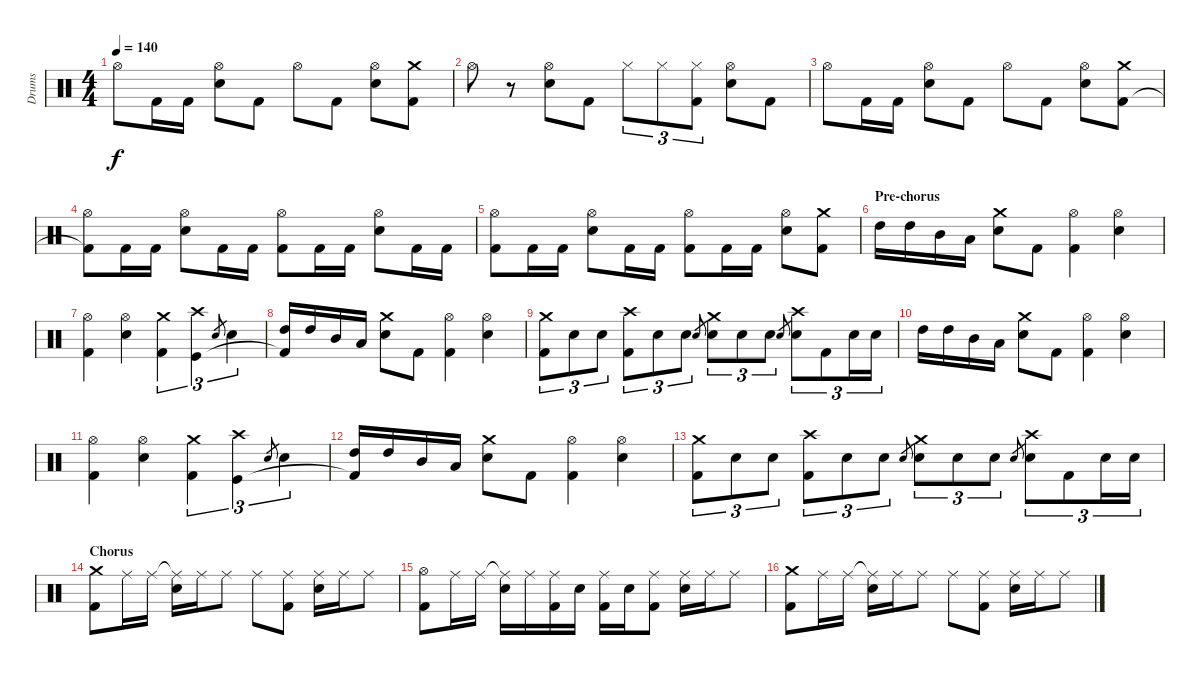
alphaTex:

\track ("Drums" "Drums") {instrument percussion}
\staff {score}
\articulation defaults
\ts (4 4)
\tempo 140
\clef neutral
\ks c "Hi-Hat (open)".8{dy f} "Kick (hit) 2".16 "Kick (hit) 2".16
("Hi-Hat (open)" "Snare (hit) 2").8 "Kick (hit) 2".8 "Hi-Hat (open)".8 "Kick (hit) 2".8 ("Hi-Hat (open)" "Snare (hit) 2").8 ("Crash medium (hit)" "Kick (hit) 2").8 |
"Hi-Hat (open)".8 r.8 ("Hi-Hat (open)" "Snare (hit) 2").8 "Kick (hit) 2".8 "Hi-Hat (closed)".8{tu (3 2)} "Hi-Hat (closed)".8{tu (3 2)} ("Hi-Hat (closed)" "Kick (hit) 2").8{tu (3 2)} ("Hi-Hat (open)" "Snare (hit) 2").8 "Kick (hit) 2".8 |
"Hi-Hat (open)".8 "Kick (hit) 2".16 "Kick (hit) 2".16 ("Hi-Hat (open)" "Snare (hit) 2").8 "Kick (hit) 2".8 "Hi-Hat (open)".8 "Kick (hit) 2".8 ("Hi-Hat (open)" "Snare (hit) 2").8 ("Crash medium (hit)" "Kick (hit) 2").8 |
("Hi-Hat (open)" "Kick (hit) 2"{t}).8 "Kick (hit) 2".16 "Kick (hit) 2".16 ("Hi-Hat (open)" "Snare (hit) 2").8 "Kick (hit) 2".16 "Kick (hit) 2".16 ("Hi-Hat (open)" "Kick (hit) 2").8 "Kick (hit) 2".16 "Kick (hit) 2".16 ("Hi-Hat (open)" "Snare (hit) 2").8 "Kick (hit) 2".16 "Kick (hit) 2".16 |
("Hi-Hat (open)" "Kick (hit) 2").8 "Kick (hit) 2".16 "Kick (hit) 2".16 ("Hi-Hat (open)" "Snare (hit) 2").8 "Kick (hit) 2".16 "Kick (hit) 2".16 ("Hi-Hat (open)" "Kick (hit) 2").8 "Kick (hit) 2".16 "Kick (hit) 2".16 ("Hi-Hat (open)" "Snare (hit) 2").8 ("Crash medium (hit)" "Kick (hit) 2").8 |
\section ("" "Pre-chorus")
"High Tom (hit)".16 "High Tom (hit)".16 "Mid Tom (hit)".16 "Low Tom (hit)".16 ("Crash medium (hit)" "Snare (hit) 2").8 "Kick (hit) 2".8 ("Hi-Hat (open)" "Kick (hit) 2").4 ("Hi-Hat (open)" "Snare (hit) 2").4 |
("Hi-Hat (open)" "Kick (hit) 2").4 ("Hi-Hat (open)" "Snare (hit) 2").4 ("Crash medium (hit)" "Kick (hit) 2").4{tu (3 2)} ("Crash high (hit)" "Kick (hit)").4{tu (3 2)} "Snare (hit) 2".8{gr} "Snare (hit) 2".4{tu (3 2)} |
("High Tom (hit)" "Kick (hit) 2"{t}).16 "High Tom (hit)".16 "Mid Tom (hit)".16 "Low Tom (hit)".16 ("Crash medium (hit)" "Snare (hit) 2").8 "Kick (hit) 2".8 ("Hi-Hat (open)" "Kick (hit) 2").4 ("Hi-Hat (open)" "Snare (hit) 2").4 |
("Crash medium (hit)" "Kick (hit) 2").8{tu (3 2)} "Snare (hit) 2".8{tu (3 2)} "Snare (hit) 2".8{tu (3 2)} ("Crash high (hit)" "Kick (hit) 2").8{tu (3 2)} "Snare (hit) 2".8{tu (3 2)} "Snare (hit) 2".8{tu (3 2)} "Snare (hit) 2".8{gr} ("Crash medium (hit)" "Snare (hit) 2").8{tu (3 2)} "Snare (hit) 2".8{tu (3 2)} "Snare (hit) 2".8{tu (3 2)} "Snare (hit) 2".8{gr} ("Crash high (hit)" "Snare (hit) 2").8{tu (3 2)} "Kick (hit) 2".8{tu (3 2)} "Snare (hit) 2".16{tu (3 2)} "Snare (hit) 2".16{tu (3 2)} |
"High Tom (hit)".16 "High Tom (hit)".16 "Mid Tom (hit)".16 "Low Tom (hit)".16 ("Crash medium (hit)" "Snare (hit) 2").8 "Kick (hit) 2".8 ("Hi-Hat (open)" "Kick (hit) 2").4 ("Hi-Hat (open)" "Snare (hit) 2").4 |
("Hi-Hat (open)" "Kick (hit) 2").4 ("Hi-Hat (open)" "Snare (hit) 2").4 ("Crash medium (hit)" "Kick (hit) 2").4{tu (3 2)} ("Crash high (hit)" "Kick (hit)").4{tu (3 2)} "Snare (hit) 2".8{gr} "Snare (hit) 2".4{tu (3 2)} |
("High Tom (hit)" "Kick (hit) 2"{t}).16 "High Tom (hit)".16 "Mid Tom (hit)".16 "Low Tom (hit)".16 ("Crash medium (hit)" "Snare (hit) 2").8 "Kick (hit) 2".8 ("Hi-Hat (open)" "Kick (hit) 2").4 ("Hi-Hat (open)" "Snare (hit) 2").4 |
("Crash medium (hit)" "Kick (hit) 2").8{tu (3 2)} "Snare (hit) 2".8{tu (3 2)} "Snare (hit) 2".8{tu (3 2)} ("Crash high (hit)" "Kick (hit) 2").8{tu (3 2)} "Snare (hit) 2".8{tu (3 2)} "Snare (hit) 2".8{tu (3 2)} "Snare (hit) 2".8{gr} ("Crash medium (hit)" "Snare (hit) 2").8{tu (3 2)} "Snare (hit) 2".8{tu (3 2)} "Snare (hit) 2".8{tu (3 2)} "Snare (hit) 2".8{gr} ("Crash high (hit)" "Snare (hit) 2").8{tu (3 2)} "Kick (hit) 2".8{tu (3 2)} "Snare (hit) 2".16{tu (3 2)} "Snare (hit) 2".16{tu (3 2)} |
\section ("" "Chorus")
("Crash medium (hit)" "Kick (hit) 2").8 "Ride (middle)".16 "Ride (middle)".16 ("Ride (middle)"{t} "Snare (hit) 2").16 "Ride (middle)".16 "Ride (middle)".8 "Ride (middle)".8 ("Ride (middle)" "Kick (hit) 2").8 ("Ride (middle)" "Snare (hit) 2").16 "Ride (middle)".16 "Ride (middle)".8 |
("Hi-Hat (open)" "Kick (hit) 2").8 "Ride (middle)".16 "Ride (middle)".16 ("Ride (middle)"{t} "Snare (hit) 2").16 "Ride (middle)".16 ("Ride (middle)" "Kick (hit) 2").16 "Snare (hit) 2".16 ("Ride (middle)" "Kick (hit) 2").16 "Snare (hit) 2".16 ("Ride (middle)" "Kick (hit) 2").8 ("Ride (middle)" "Snare (hit) 2").16 "Ride (middle)".16 "Ride (middle)".8 |
("Crash medium (hit)" "Kick (hit) 2").8 "Ride (middle)".16 "Ride (middle)".16 ("Ride (middle)"{t} "Snare (hit) 2").16 "Ride (middle)".16 "Ride (middle)".8 "Ride (middle)".8 ("Ride (middle)" "Kick (hit) 2").8 ("Ride (middle)" "Snare (hit) 2").16 "Ride (middle)".16 "Ride (middle)".8
